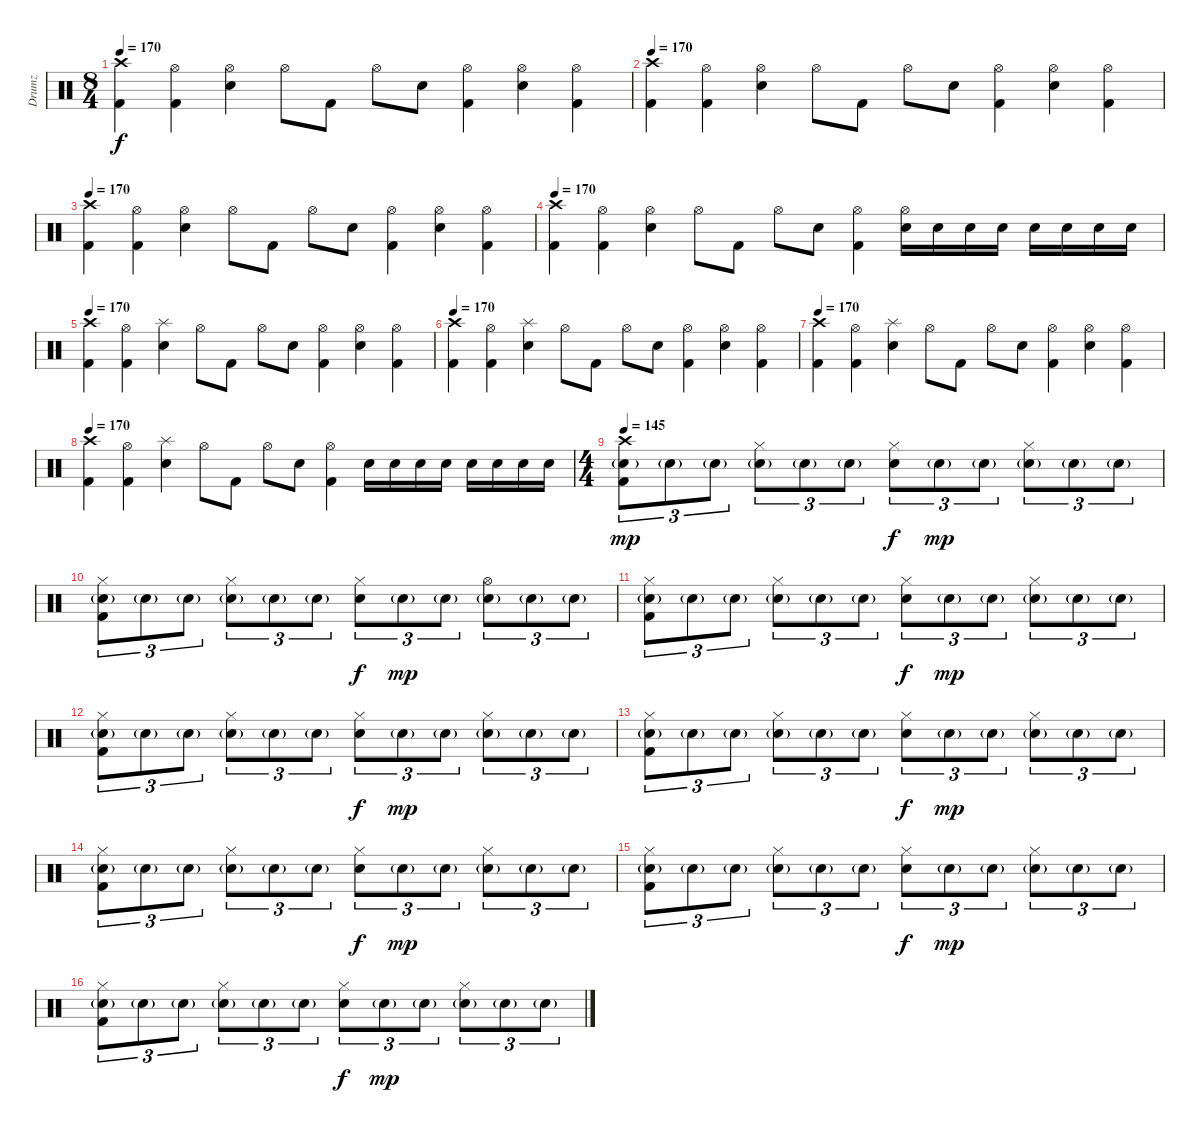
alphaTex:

\track ("Drumz" "Drumz") {instrument percussion}
\staff {score}
\articulation defaults
\ts (8 4)
\tempo 170
\clef neutral
\ks c
("Crash high (hit)" "Kick (hit) 2").4{dy f} ("Hi-Hat (open)" "Kick (hit) 2").4 ("Hi-Hat (open)" "Electric Snare (hit)").4 "Hi-Hat (open)".8 "Kick (hit) 2".8 "Hi-Hat (open)".8 "Electric Snare (hit)".8 ("Hi-Hat (open)" "Kick (hit) 2").4 ("Hi-Hat (open)" "Electric Snare (hit)").4 ("Hi-Hat (open)" "Kick (hit) 2").4 |
\tempo 170
("Crash high (hit)" "Kick (hit) 2").4 ("Hi-Hat (open)" "Kick (hit) 2").4 ("Hi-Hat (open)" "Electric Snare (hit)").4 "Hi-Hat (open)".8 "Kick (hit) 2".8 "Hi-Hat (open)".8 "Electric Snare (hit)".8 ("Hi-Hat (open)" "Kick (hit) 2").4 ("Hi-Hat (open)" "Electric Snare (hit)").4 ("Hi-Hat (open)" "Kick (hit) 2").4 |
\tempo 170
("Crash high (hit)" "Kick (hit) 2").4 ("Hi-Hat (open)" "Kick (hit) 2").4 ("Hi-Hat (open)" "Electric Snare (hit)").4 "Hi-Hat (open)".8 "Kick (hit) 2".8 "Hi-Hat (open)".8 "Electric Snare (hit)".8 ("Hi-Hat (open)" "Kick (hit) 2").4 ("Hi-Hat (open)" "Electric Snare (hit)").4 ("Hi-Hat (open)" "Kick (hit) 2").4 |
\tempo 170
("Crash high (hit)" "Kick (hit) 2").4 ("Hi-Hat (open)" "Kick (hit) 2").4 ("Hi-Hat (open)" "Electric Snare (hit)").4 "Hi-Hat (open)".8 "Kick (hit) 2".8 "Hi-Hat (open)".8 "Electric Snare (hit)".8 ("Hi-Hat (open)" "Kick (hit) 2").4 ("Hi-Hat (open)" "Electric Snare (hit)").16 "Electric Snare (hit)".16 "Electric Snare (hit)".16 "Electric Snare (hit)".16 "Electric Snare (hit)".16 "Electric Snare (hit)".16 "Electric Snare (hit)".16 "Electric Snare (hit)".16 |
\tempo 170
("Crash high (hit)" "Kick (hit) 2").4 ("Hi-Hat (open)" "Kick (hit) 2").4 ("Splash (hit)" "Electric Snare (hit)").4 "Hi-Hat (open)".8 "Kick (hit) 2".8 "Hi-Hat (open)".8 "Electric Snare (hit)".8 ("Hi-Hat (open)" "Kick (hit) 2").4 ("Hi-Hat (open)" "Electric Snare (hit)").4 ("Hi-Hat (open)" "Kick (hit) 2").4 |
\tempo 170
("Crash high (hit)" "Kick (hit) 2").4 ("Hi-Hat (open)" "Kick (hit) 2").4 ("Splash (hit)" "Electric Snare (hit)").4 "Hi-Hat (open)".8 "Kick (hit) 2".8 "Hi-Hat (open)".8 "Electric Snare (hit)".8 ("Hi-Hat (open)" "Kick (hit) 2").4 ("Hi-Hat (open)" "Electric Snare (hit)").4 ("Hi-Hat (open)" "Kick (hit) 2").4 |
\tempo 170
("Crash high (hit)" "Kick (hit) 2").4 ("Hi-Hat (open)" "Kick (hit) 2").4 ("Splash (hit)" "Electric Snare (hit)").4 "Hi-Hat (open)".8 "Kick (hit) 2".8 "Hi-Hat (open)".8 "Electric Snare (hit)".8 ("Hi-Hat (open)" "Kick (hit) 2").4 ("Hi-Hat (open)" "Electric Snare (hit)").4 ("Hi-Hat (open)" "Kick (hit) 2").4 |
\tempo 170
("Crash high (hit)" "Kick (hit) 2").4 ("Hi-Hat (open)" "Kick (hit) 2").4 ("Splash (hit)" "Electric Snare (hit)").4 "Hi-Hat (open)".8 "Kick (hit) 2".8 "Hi-Hat (open)".8 "Electric Snare (hit)".8 ("Hi-Hat (open)" "Kick (hit) 2").4 "Electric Snare (hit)".16 "Electric Snare (hit)".16 "Electric Snare (hit)".16 "Electric Snare (hit)".16 "Electric Snare (hit)".16 "Electric Snare (hit)".16 "Electric Snare (hit)".16 "Electric Snare (hit)".16 |
\ts (4 4)
\tempo 145
("Crash high (hit)" "Electric Snare (hit)"{g} "Kick (hit) 2").8{tu (3 2) dy mp} "Electric Snare (hit)"{g}.8{tu (3 2)} "Electric Snare (hit)"{g}.8{tu (3 2)} ("Hi-Hat (closed)" "Electric Snare (hit)"{g}).8{tu (3 2)} "Electric Snare (hit)"{g}.8{tu (3 2)} "Electric Snare (hit)"{g}.8{tu (3 2)} ("Hi-Hat (closed)" "Electric Snare (hit)").8{tu (3 2) dy f} "Electric Snare (hit)"{g}.8{tu (3 2) dy mp} "Electric Snare (hit)"{g}.8{tu (3 2)} ("Hi-Hat (closed)" "Electric Snare (hit)"{g}).8{tu (3 2)} "Electric Snare (hit)"{g}.8{tu (3 2)} "Electric Snare (hit)"{g}.8{tu (3 2)} |
("Hi-Hat (closed)" "Electric Snare (hit)"{g} "Kick (hit) 2").8{tu (3 2)} "Electric Snare (hit)"{g}.8{tu (3 2)} "Electric Snare (hit)"{g}.8{tu (3 2)} ("Hi-Hat (closed)" "Electric Snare (hit)"{g}).8{tu (3 2)} "Electric Snare (hit)"{g}.8{tu (3 2)} "Electric Snare (hit)"{g}.8{tu (3 2)} ("Hi-Hat (closed)" "Electric Snare (hit)").8{tu (3 2) dy f} "Electric Snare (hit)"{g}.8{tu (3 2) dy mp} "Electric Snare (hit)"{g}.8{tu (3 2)} ("Hi-Hat (open)" "Electric Snare (hit)"{g}).8{tu (3 2)} "Electric Snare (hit)"{g}.8{tu (3 2)} "Electric Snare (hit)"{g}.8{tu (3 2)} |
("Hi-Hat (closed)" "Electric Snare (hit)"{g} "Kick (hit) 2").8{tu (3 2)} "Electric Snare (hit)"{g}.8{tu (3 2)} "Electric Snare (hit)"{g}.8{tu (3 2)} ("Hi-Hat (closed)" "Electric Snare (hit)"{g}).8{tu (3 2)} "Electric Snare (hit)"{g}.8{tu (3 2)} "Electric Snare (hit)"{g}.8{tu (3 2)} ("Hi-Hat (closed)" "Electric Snare (hit)").8{tu (3 2) dy f} "Electric Snare (hit)"{g}.8{tu (3 2) dy mp} "Electric Snare (hit)"{g}.8{tu (3 2)} ("Hi-Hat (closed)" "Electric Snare (hit)"{g}).8{tu (3 2)} "Electric Snare (hit)"{g}.8{tu (3 2)} "Electric Snare (hit)"{g}.8{tu (3 2)} |
("Hi-Hat (closed)" "Electric Snare (hit)"{g} "Kick (hit) 2").8{tu (3 2)} "Electric Snare (hit)"{g}.8{tu (3 2)} "Electric Snare (hit)"{g}.8{tu (3 2)} ("Hi-Hat (closed)" "Electric Snare (hit)"{g}).8{tu (3 2)} "Electric Snare (hit)"{g}.8{tu (3 2)} "Electric Snare (hit)"{g}.8{tu (3 2)} ("Hi-Hat (closed)" "Electric Snare (hit)").8{tu (3 2) dy f} "Electric Snare (hit)"{g}.8{tu (3 2) dy mp} "Electric Snare (hit)"{g}.8{tu (3 2)} ("Hi-Hat (closed)" "Electric Snare (hit)"{g}).8{tu (3 2)} "Electric Snare (hit)"{g}.8{tu (3 2)} "Electric Snare (hit)"{g}.8{tu (3 2)} |
("Hi-Hat (closed)" "Electric Snare (hit)"{g} "Kick (hit) 2").8{tu (3 2)} "Electric Snare (hit)"{g}.8{tu (3 2)} "Electric Snare (hit)"{g}.8{tu (3 2)} ("Hi-Hat (closed)" "Electric Snare (hit)"{g}).8{tu (3 2)} "Electric Snare (hit)"{g}.8{tu (3 2)} "Electric Snare (hit)"{g}.8{tu (3 2)} ("Hi-Hat (closed)" "Electric Snare (hit)").8{tu (3 2) dy f} "Electric Snare (hit)"{g}.8{tu (3 2) dy mp} "Electric Snare (hit)"{g}.8{tu (3 2)} ("Hi-Hat (closed)" "Electric Snare (hit)"{g}).8{tu (3 2)} "Electric Snare (hit)"{g}.8{tu (3 2)} "Electric Snare (hit)"{g}.8{tu (3 2)} |
("Hi-Hat (closed)" "Electric Snare (hit)"{g} "Kick (hit) 2").8{tu (3 2)} "Electric Snare (hit)"{g}.8{tu (3 2)} "Electric Snare (hit)"{g}.8{tu (3 2)} ("Hi-Hat (closed)" "Electric Snare (hit)"{g}).8{tu (3 2)} "Electric Snare (hit)"{g}.8{tu (3 2)} "Electric Snare (hit)"{g}.8{tu (3 2)} ("Hi-Hat (closed)" "Electric Snare (hit)").8{tu (3 2) dy f} "Electric Snare (hit)"{g}.8{tu (3 2) dy mp} "Electric Snare (hit)"{g}.8{tu (3 2)} ("Hi-Hat (closed)" "Electric Snare (hit)"{g}).8{tu (3 2)} "Electric Snare (hit)"{g}.8{tu (3 2)} "Electric Snare (hit)"{g}.8{tu (3 2)} |
("Hi-Hat (closed)" "Electric Snare (hit)"{g} "Kick (hit) 2").8{tu (3 2)} "Electric Snare (hit)"{g}.8{tu (3 2)} "Electric Snare (hit)"{g}.8{tu (3 2)} ("Hi-Hat (closed)" "Electric Snare (hit)"{g}).8{tu (3 2)} "Electric Snare (hit)"{g}.8{tu (3 2)} "Electric Snare (hit)"{g}.8{tu (3 2)} ("Hi-Hat (closed)" "Electric Snare (hit)").8{tu (3 2) dy f} "Electric Snare (hit)"{g}.8{tu (3 2) dy mp} "Electric Snare (hit)"{g}.8{tu (3 2)} ("Hi-Hat (closed)" "Electric Snare (hit)"{g}).8{tu (3 2)} "Electric Snare (hit)"{g}.8{tu (3 2)} "Electric Snare (hit)"{g}.8{tu (3 2)} |
("Hi-Hat (closed)" "Electric Snare (hit)"{g} "Kick (hit) 2").8{tu (3 2)} "Electric Snare (hit)"{g}.8{tu (3 2)} "Electric Snare (hit)"{g}.8{tu (3 2)} ("Hi-Hat (closed)" "Electric Snare (hit)"{g}).8{tu (3 2)} "Electric Snare (hit)"{g}.8{tu (3 2)} "Electric Snare (hit)"{g}.8{tu (3 2)} ("Hi-Hat (closed)" "Electric Snare (hit)").8{tu (3 2) dy f} "Electric Snare (hit)"{g}.8{tu (3 2) dy mp} "Electric Snare (hit)"{g}.8{tu (3 2)} ("Hi-Hat (closed)" "Electric Snare (hit)"{g}).8{tu (3 2)} "Electric Snare (hit)"{g}.8{tu (3 2)} "Electric Snare (hit)"{g}.8{tu (3 2)}
